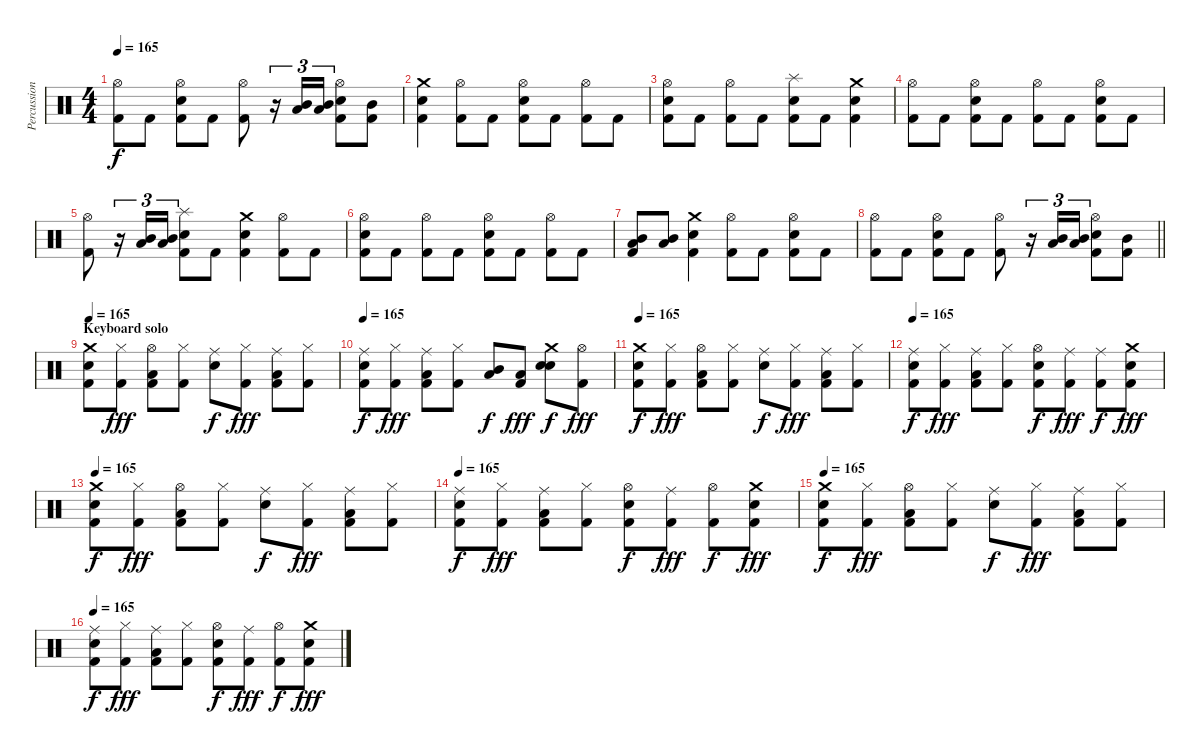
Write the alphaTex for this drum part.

\track ("Percussion" "Percussion") {instrument percussion}
\staff {score}
\articulation defaults
\ts (4 4)
\tempo 165
\clef neutral
\ks c
("Hi-Hat (open)" "Kick (hit) 2").8{dy f} "Kick (hit) 2".8 ("Hi-Hat (open)" "Electric Snare (hit)" "Kick (hit) 2").8 "Kick (hit) 2".8 ("Hi-Hat (open)" "Kick (hit) 2").8 r.16{tu (3 2)} ("Mid Tom (hit)" "Low Tom (hit)").16{tu (3 2)} ("Mid Tom (hit)" "Low Tom (hit)").16{tu (3 2)} ("Hi-Hat (open)" "Electric Snare (hit)" "Kick (hit) 2").8 ("Mid Tom (hit)" "Kick (hit) 2").8 |
("Crash medium (hit)" "Electric Snare (hit)" "Kick (hit) 2").4 ("Hi-Hat (open)" "Kick (hit) 2").8 "Kick (hit) 2".8 ("Hi-Hat (open)" "Electric Snare (hit)" "Kick (hit) 2").8 "Kick (hit) 2".8 ("Hi-Hat (open)" "Kick (hit) 2").8 "Kick (hit) 2".8 |
("Hi-Hat (open)" "Electric Snare (hit)" "Kick (hit) 2").8 "Kick (hit) 2".8 ("Hi-Hat (open)" "Kick (hit) 2").8 "Kick (hit) 2".8 ("Splash (hit)" "Electric Snare (hit)" "Kick (hit) 2").8 "Kick (hit) 2".8 ("Crash medium (hit)" "Electric Snare (hit)" "Kick (hit) 2").4 |
("Hi-Hat (open)" "Kick (hit) 2").8 "Kick (hit) 2".8 ("Hi-Hat (open)" "Electric Snare (hit)" "Kick (hit) 2").8 "Kick (hit) 2".8 ("Hi-Hat (open)" "Kick (hit) 2").8 "Kick (hit) 2".8 ("Hi-Hat (open)" "Electric Snare (hit)" "Kick (hit) 2").8 "Kick (hit) 2".8 |
("Hi-Hat (open)" "Kick (hit) 2").8 r.16{tu (3 2)} ("Mid Tom (hit)" "Low Tom (hit)").16{tu (3 2)} ("Mid Tom (hit)" "Low Tom (hit)").16{tu (3 2)} ("Splash (hit)" "Electric Snare (hit)" "Kick (hit) 2").8 "Kick (hit) 2".8 ("Crash medium (hit)" "Electric Snare (hit)" "Kick (hit) 2").4 ("Hi-Hat (open)" "Kick (hit) 2").8 "Kick (hit) 2".8 |
("Hi-Hat (open)" "Electric Snare (hit)" "Kick (hit) 2").8 "Kick (hit) 2".8 ("Hi-Hat (open)" "Kick (hit) 2").8 "Kick (hit) 2".8 ("Hi-Hat (open)" "Electric Snare (hit)" "Kick (hit) 2").8 "Kick (hit) 2".8 ("Hi-Hat (open)" "Kick (hit) 2").8 "Kick (hit) 2".8 |
("Mid Tom (hit)" "Low Tom (hit)" "Kick (hit) 2").8 ("Mid Tom (hit)" "Low Tom (hit)").8 ("Crash medium (hit)" "Electric Snare (hit)" "Kick (hit) 2").4 ("Hi-Hat (open)" "Kick (hit) 2").8 "Kick (hit) 2".8 ("Hi-Hat (open)" "Electric Snare (hit)" "Kick (hit) 2").8 "Kick (hit) 2".8 |
\barLineRight lightlight
("Hi-Hat (open)" "Kick (hit) 2").8 "Kick (hit) 2".8 ("Hi-Hat (open)" "Electric Snare (hit)" "Kick (hit) 2").8 "Kick (hit) 2".8 ("Hi-Hat (open)" "Kick (hit) 2").8 r.16{tu (3 2)} ("Mid Tom (hit)" "Low Tom (hit)").16{tu (3 2)} ("Mid Tom (hit)" "Low Tom (hit)").16{tu (3 2)} ("Hi-Hat (open)" "Electric Snare (hit)" "Kick (hit) 2").8 ("Mid Tom (hit)" "Kick (hit) 2").8 |
\section ("" "Keyboard solo")
\tempo 165
("Crash medium (hit)" "Electric Snare (hit)" "Kick (hit) 2").8 ("Hi-Hat (closed)" "Kick (hit) 2").8{dy fff} ("Hi-Hat (open)" "Low Floor Tom (hit)" "Kick (hit) 2").8 ("Hi-Hat (closed)" "Kick (hit) 2").8 ("Ride (middle)" "Electric Snare (hit)").8{dy f} ("Hi-Hat (closed)" "Kick (hit) 2").8{dy fff} ("Ride (middle)" "Low Floor Tom (hit)" "Kick (hit) 2").8 ("Hi-Hat (closed)" "Kick (hit) 2").8 |
\tempo 165
("Ride (middle)" "Electric Snare (hit)" "Kick (hit) 2").8{dy f} ("Hi-Hat (closed)" "Kick (hit) 2").8{dy fff} ("Ride (middle)" "Low Floor Tom (hit)" "Kick (hit) 2").8 ("Hi-Hat (closed)" "Kick (hit) 2").8 ("Mid Tom (hit)" "Low Tom (hit)").8{dy f} ("Low Tom (hit)" "Kick (hit) 2").8{dy fff} ("Crash medium (hit)" "Electric Snare (hit)" "Electric Snare (hit)").8{bd 120 dy f} ("Hi-Hat (open)" "Kick (hit) 2").8{dy fff} |
\tempo 165
("Crash medium (hit)" "Electric Snare (hit)" "Kick (hit) 2").8{dy f} ("Hi-Hat (closed)" "Kick (hit) 2").8{dy fff} ("Hi-Hat (open)" "Low Floor Tom (hit)" "Kick (hit) 2").8 ("Hi-Hat (closed)" "Kick (hit) 2").8 ("Ride (middle)" "Electric Snare (hit)").8{dy f} ("Hi-Hat (closed)" "Kick (hit) 2").8{dy fff} ("Ride (middle)" "Low Floor Tom (hit)" "Kick (hit) 2").8 ("Hi-Hat (closed)" "Kick (hit) 2").8 |
\tempo 165
("Ride (middle)" "Electric Snare (hit)" "Kick (hit) 2").8{dy f} ("Hi-Hat (closed)" "Kick (hit) 2").8{dy fff} ("Ride (middle)" "Low Floor Tom (hit)" "Kick (hit) 2").8 ("Hi-Hat (closed)" "Kick (hit) 2").8 ("Hi-Hat (open)" "Electric Snare (hit)" "Kick (hit) 2").8{dy f} ("Ride (middle)" "Kick (hit) 2").8{dy fff} ("Ride (middle)" "Kick (hit) 2").8{dy f} ("Crash medium (hit)" "Electric Snare (hit)" "Kick (hit) 2").8{dy fff} |
\tempo 165
("Crash medium (hit)" "Electric Snare (hit)" "Kick (hit) 2").8{dy f} ("Hi-Hat (closed)" "Kick (hit) 2").8{dy fff} ("Hi-Hat (open)" "Low Floor Tom (hit)" "Kick (hit) 2").8 ("Hi-Hat (closed)" "Kick (hit) 2").8 ("Ride (middle)" "Electric Snare (hit)").8{dy f} ("Hi-Hat (closed)" "Kick (hit) 2").8{dy fff} ("Ride (middle)" "Low Floor Tom (hit)" "Kick (hit) 2").8 ("Hi-Hat (closed)" "Kick (hit) 2").8 |
\tempo 165
("Ride (middle)" "Electric Snare (hit)" "Kick (hit) 2").8{dy f} ("Hi-Hat (closed)" "Kick (hit) 2").8{dy fff} ("Ride (middle)" "Low Floor Tom (hit)" "Kick (hit) 2").8 ("Hi-Hat (closed)" "Kick (hit) 2").8 ("Hi-Hat (open)" "Electric Snare (hit)" "Kick (hit) 2").8{dy f} ("Ride (middle)" "Kick (hit) 2").8{dy fff} ("Hi-Hat (open)" "Kick (hit) 2").8{dy f} ("Crash medium (hit)" "Electric Snare (hit)" "Kick (hit) 2").8{dy fff} |
\tempo 165
("Crash medium (hit)" "Electric Snare (hit)" "Kick (hit) 2").8{dy f} ("Hi-Hat (closed)" "Kick (hit) 2").8{dy fff} ("Hi-Hat (open)" "Low Floor Tom (hit)" "Kick (hit) 2").8 ("Hi-Hat (closed)" "Kick (hit) 2").8 ("Ride (middle)" "Electric Snare (hit)").8{dy f} ("Hi-Hat (closed)" "Kick (hit) 2").8{dy fff} ("Ride (middle)" "Low Floor Tom (hit)" "Kick (hit) 2").8 ("Hi-Hat (closed)" "Kick (hit) 2").8 |
\tempo 165
("Ride (middle)" "Electric Snare (hit)" "Kick (hit) 2").8{dy f} ("Hi-Hat (closed)" "Kick (hit) 2").8{dy fff} ("Ride (middle)" "Low Floor Tom (hit)" "Kick (hit) 2").8 ("Hi-Hat (closed)" "Kick (hit) 2").8 ("Hi-Hat (open)" "Electric Snare (hit)" "Kick (hit) 2").8{dy f} ("Ride (middle)" "Kick (hit) 2").8{dy fff} ("Hi-Hat (open)" "Kick (hit) 2").8{dy f} ("Crash medium (hit)" "Electric Snare (hit)" "Kick (hit) 2").8{dy fff}
